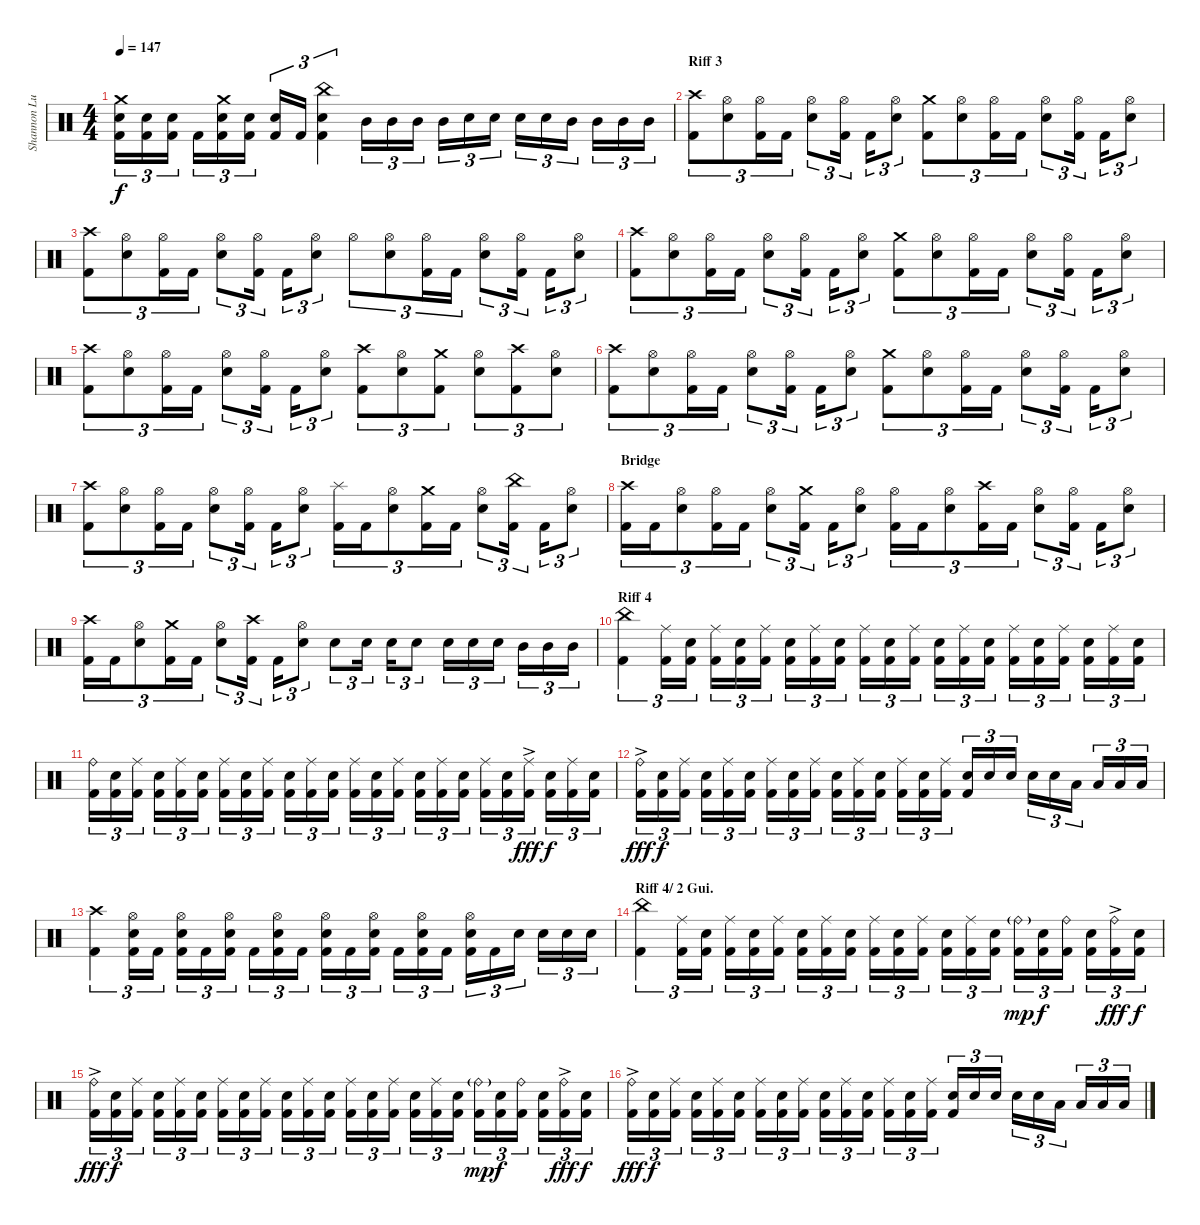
\track ("Shannon Lucas (Drums)" "Shannon Lu") {instrument percussion}
\staff {score}
\articulation defaults
\ts (4 4)
\tempo 147
\clef neutral
\ks c
("Crash medium (hit)" "Snare (hit) 2" "Kick (hit) 2").16{tu (3 2) dy f} ("Snare (hit) 2" "Kick (hit) 2").16{tu (3 2)} ("Snare (hit) 2" "Kick (hit) 2").16{tu (3 2)} "Kick (hit) 2".16{tu (3 2)} ("Crash medium (hit)" "Snare (hit) 2" "Kick (hit) 2").16{tu (3 2)} ("Snare (hit) 2" "Kick (hit) 2").16{tu (3 2)} ("Snare (hit) 2" "Kick (hit) 2").16{tu (3 2)} "Kick (hit) 2".16{tu (3 2)} ("China (hit)" "Snare (hit) 2" "Kick (hit) 2").4{tu (3 2)} "Mid Tom (hit)".16{tu (3 2)} "Mid Tom (hit)".16{tu (3 2)} "Mid Tom (hit)".16{tu (3 2)} "Mid Tom (hit)".16{tu (3 2)} "Snare (hit) 2".16{tu (3 2)} "Snare (hit) 2".16{tu (3 2)} "Snare (hit) 2".16{tu (3 2)} "Snare (hit) 2".16{tu (3 2)} "Mid Tom (hit)".16{tu (3 2)} "Mid Tom (hit)".16{tu (3 2)} "Mid Tom (hit)".16{tu (3 2)} "Mid Tom (hit)".16{tu (3 2)} |
\section ("" "Riff 3")
("Crash high (hit)" "Kick (hit) 2").8{tu (3 2)} ("Hi-Hat (open)" "Snare (hit) 2").8{tu (3 2)} ("Hi-Hat (open)" "Kick (hit) 2").16{tu (3 2)} "Kick (hit) 2".16{tu (3 2)} ("Hi-Hat (open)" "Snare (hit) 2").8{tu (3 2)} ("Hi-Hat (open)" "Kick (hit) 2").16{tu (3 2)} "Kick (hit) 2".16{tu (3 2)} ("Hi-Hat (open)" "Snare (hit) 2").8{tu (3 2)} ("Crash medium (hit)" "Kick (hit) 2").8{tu (3 2)} ("Hi-Hat (open)" "Snare (hit) 2").8{tu (3 2)} ("Hi-Hat (open)" "Kick (hit) 2").16{tu (3 2)} "Kick (hit) 2".16{tu (3 2)} ("Hi-Hat (open)" "Snare (hit) 2").8{tu (3 2)} ("Hi-Hat (open)" "Kick (hit) 2").16{tu (3 2)} "Kick (hit) 2".16{tu (3 2)} ("Hi-Hat (open)" "Snare (hit) 2").8{tu (3 2)} |
("Crash high (hit)" "Kick (hit) 2").8{tu (3 2)} ("Hi-Hat (open)" "Snare (hit) 2").8{tu (3 2)} ("Hi-Hat (open)" "Kick (hit) 2").16{tu (3 2)} "Kick (hit) 2".16{tu (3 2)} ("Hi-Hat (open)" "Snare (hit) 2").8{tu (3 2)} ("Hi-Hat (open)" "Kick (hit) 2").16{tu (3 2)} "Kick (hit) 2".16{tu (3 2)} ("Hi-Hat (open)" "Snare (hit) 2").8{tu (3 2)} "Hi-Hat (open)".8{tu (3 2)} ("Hi-Hat (open)" "Snare (hit) 2").8{tu (3 2)} ("Hi-Hat (open)" "Kick (hit) 2").16{tu (3 2)} "Kick (hit) 2".16{tu (3 2)} ("Hi-Hat (open)" "Snare (hit) 2").8{tu (3 2)} ("Hi-Hat (open)" "Kick (hit) 2").16{tu (3 2)} "Kick (hit) 2".16{tu (3 2)} ("Hi-Hat (open)" "Snare (hit) 2").8{tu (3 2)} |
("Crash high (hit)" "Kick (hit) 2").8{tu (3 2)} ("Hi-Hat (open)" "Snare (hit) 2").8{tu (3 2)} ("Hi-Hat (open)" "Kick (hit) 2").16{tu (3 2)} "Kick (hit) 2".16{tu (3 2)} ("Hi-Hat (open)" "Snare (hit) 2").8{tu (3 2)} ("Hi-Hat (open)" "Kick (hit) 2").16{tu (3 2)} "Kick (hit) 2".16{tu (3 2)} ("Hi-Hat (open)" "Snare (hit) 2").8{tu (3 2)} ("Crash medium (hit)" "Kick (hit) 2").8{tu (3 2)} ("Hi-Hat (open)" "Snare (hit) 2").8{tu (3 2)} ("Hi-Hat (open)" "Kick (hit) 2").16{tu (3 2)} "Kick (hit) 2".16{tu (3 2)} ("Hi-Hat (open)" "Snare (hit) 2").8{tu (3 2)} ("Hi-Hat (open)" "Kick (hit) 2").16{tu (3 2)} "Kick (hit) 2".16{tu (3 2)} ("Hi-Hat (open)" "Snare (hit) 2").8{tu (3 2)} |
("Crash high (hit)" "Kick (hit) 2").8{tu (3 2)} ("Hi-Hat (open)" "Snare (hit) 2").8{tu (3 2)} ("Hi-Hat (open)" "Kick (hit) 2").16{tu (3 2)} "Kick (hit) 2".16{tu (3 2)} ("Hi-Hat (open)" "Snare (hit) 2").8{tu (3 2)} ("Hi-Hat (open)" "Kick (hit) 2").16{tu (3 2)} "Kick (hit) 2".16{tu (3 2)} ("Hi-Hat (open)" "Snare (hit) 2").8{tu (3 2)} ("Crash high (hit)" "Kick (hit) 2").8{tu (3 2)} ("Hi-Hat (open)" "Snare (hit) 2").8{tu (3 2)} ("Crash medium (hit)" "Kick (hit) 2").8{tu (3 2)} ("Hi-Hat (open)" "Snare (hit) 2").8{tu (3 2)} ("Crash high (hit)" "Kick (hit) 2").8{tu (3 2)} ("Hi-Hat (open)" "Snare (hit) 2").8{tu (3 2)} |
("Crash high (hit)" "Kick (hit) 2").8{tu (3 2)} ("Hi-Hat (open)" "Snare (hit) 2").8{tu (3 2)} ("Hi-Hat (open)" "Kick (hit) 2").16{tu (3 2)} "Kick (hit) 2".16{tu (3 2)} ("Hi-Hat (open)" "Snare (hit) 2").8{tu (3 2)} ("Hi-Hat (open)" "Kick (hit) 2").16{tu (3 2)} "Kick (hit) 2".16{tu (3 2)} ("Hi-Hat (open)" "Snare (hit) 2").8{tu (3 2)} ("Crash medium (hit)" "Kick (hit) 2").8{tu (3 2)} ("Hi-Hat (open)" "Snare (hit) 2").8{tu (3 2)} ("Hi-Hat (open)" "Kick (hit) 2").16{tu (3 2)} "Kick (hit) 2".16{tu (3 2)} ("Hi-Hat (open)" "Snare (hit) 2").8{tu (3 2)} ("Hi-Hat (open)" "Kick (hit) 2").16{tu (3 2)} "Kick (hit) 2".16{tu (3 2)} ("Hi-Hat (open)" "Snare (hit) 2").8{tu (3 2)} |
("Crash high (hit)" "Kick (hit) 2").8{tu (3 2)} ("Hi-Hat (open)" "Snare (hit) 2").8{tu (3 2)} ("Hi-Hat (open)" "Kick (hit) 2").16{tu (3 2)} "Kick (hit) 2".16{tu (3 2)} ("Hi-Hat (open)" "Snare (hit) 2").8{tu (3 2)} ("Hi-Hat (open)" "Kick (hit) 2").16{tu (3 2)} "Kick (hit) 2".16{tu (3 2)} ("Hi-Hat (open)" "Snare (hit) 2").8{tu (3 2)} ("Splash (hit)" "Kick (hit) 2").16{tu (3 2)} "Kick (hit) 2".16{tu (3 2)} ("Hi-Hat (open)" "Snare (hit) 2").8{tu (3 2)} ("Crash medium (hit)" "Kick (hit) 2").16{tu (3 2)} "Kick (hit) 2".16{tu (3 2)} ("Hi-Hat (open)" "Snare (hit) 2").8{tu (3 2)} ("China (hit)" "Kick (hit) 2").16{tu (3 2)} "Kick (hit) 2".16{tu (3 2)} ("Hi-Hat (open)" "Snare (hit) 2").8{tu (3 2)} |
\section ("" "Bridge")
("Crash high (hit)" "Kick (hit) 2").16{tu (3 2)} "Kick (hit) 2".16{tu (3 2)} ("Hi-Hat (open)" "Snare (hit) 2").8{tu (3 2)} ("Hi-Hat (open)" "Kick (hit) 2").16{tu (3 2)} "Kick (hit) 2".16{tu (3 2)} ("Hi-Hat (open)" "Snare (hit) 2").8{tu (3 2)} ("Crash medium (hit)" "Kick (hit) 2").16{tu (3 2)} "Kick (hit) 2".16{tu (3 2)} ("Hi-Hat (open)" "Snare (hit) 2").8{tu (3 2)} ("Hi-Hat (open)" "Kick (hit) 2").16{tu (3 2)} "Kick (hit) 2".16{tu (3 2)} ("Hi-Hat (open)" "Snare (hit) 2").8{tu (3 2)} ("Crash high (hit)" "Kick (hit) 2").16{tu (3 2)} "Kick (hit) 2".16{tu (3 2)} ("Hi-Hat (open)" "Snare (hit) 2").8{tu (3 2)} ("Hi-Hat (open)" "Kick (hit) 2").16{tu (3 2)} "Kick (hit) 2".16{tu (3 2)} ("Hi-Hat (open)" "Snare (hit) 2").8{tu (3 2)} |
("Crash high (hit)" "Kick (hit) 2").16{tu (3 2)} "Kick (hit) 2".16{tu (3 2)} ("Hi-Hat (open)" "Snare (hit) 2").8{tu (3 2)} ("Crash medium (hit)" "Kick (hit) 2").16{tu (3 2)} "Kick (hit) 2".16{tu (3 2)} ("Hi-Hat (open)" "Snare (hit) 2").8{tu (3 2)} ("Crash high (hit)" "Kick (hit) 2").16{tu (3 2)} "Kick (hit) 2".16{tu (3 2)} ("Hi-Hat (open)" "Snare (hit) 2").8{tu (3 2)} "Snare (hit) 2".8{tu (3 2)} "Snare (hit) 2".16{tu (3 2)} "Snare (hit) 2".16{tu (3 2)} "Snare (hit) 2".8{tu (3 2)} "Snare (hit) 2".16{tu (3 2)} "Snare (hit) 2".16{tu (3 2)} "Snare (hit) 2".16{tu (3 2)} "Mid Tom (hit)".16{tu (3 2)} "Mid Tom (hit)".16{tu (3 2)} "Mid Tom (hit)".16{tu (3 2)} |
\section ("" "Riff 4")
("China (hit)" "Kick (hit) 2").4{tu (3 2)} ("Ride (middle)" "Kick (hit) 2").16{tu (3 2)} ("Snare (hit) 2" "Kick (hit) 2").16{tu (3 2)} ("Ride (middle)" "Kick (hit) 2").16{tu (3 2)} ("Snare (hit) 2" "Kick (hit) 2").16{tu (3 2)} ("Ride (middle)" "Kick (hit) 2").16{tu (3 2)} ("Snare (hit) 2" "Kick (hit) 2").16{tu (3 2)} ("Ride (middle)" "Kick (hit) 2").16{tu (3 2)} ("Snare (hit) 2" "Kick (hit) 2").16{tu (3 2)} ("Ride (middle)" "Kick (hit) 2").16{tu (3 2)} ("Snare (hit) 2" "Kick (hit) 2").16{tu (3 2)} ("Ride (middle)" "Kick (hit) 2").16{tu (3 2)} ("Snare (hit) 2" "Kick (hit) 2").16{tu (3 2)} ("Ride (middle)" "Kick (hit) 2").16{tu (3 2)} ("Snare (hit) 2" "Kick (hit) 2").16{tu (3 2)} ("Ride (middle)" "Kick (hit) 2").16{tu (3 2)} ("Snare (hit) 2" "Kick (hit) 2").16{tu (3 2)} ("Ride (middle)" "Kick (hit) 2").16{tu (3 2)} ("Snare (hit) 2" "Kick (hit) 2").16{tu (3 2)} ("Ride (middle)" "Kick (hit) 2").16{tu (3 2)} ("Snare (hit) 2" "Kick (hit) 2").16{tu (3 2)} |
("Ride (bell)" "Kick (hit) 2").16{tu (3 2)} ("Snare (hit) 2" "Kick (hit) 2").16{tu (3 2)} ("Ride (middle)" "Kick (hit) 2").16{tu (3 2)} ("Snare (hit) 2" "Kick (hit) 2").16{tu (3 2)} ("Ride (middle)" "Kick (hit) 2").16{tu (3 2)} ("Snare (hit) 2" "Kick (hit) 2").16{tu (3 2)} ("Ride (middle)" "Kick (hit) 2").16{tu (3 2)} ("Snare (hit) 2" "Kick (hit) 2").16{tu (3 2)} ("Ride (middle)" "Kick (hit) 2").16{tu (3 2)} ("Snare (hit) 2" "Kick (hit) 2").16{tu (3 2)} ("Ride (middle)" "Kick (hit) 2").16{tu (3 2)} ("Snare (hit) 2" "Kick (hit) 2").16{tu (3 2)} ("Ride (middle)" "Kick (hit) 2").16{tu (3 2)} ("Snare (hit) 2" "Kick (hit) 2").16{tu (3 2)} ("Ride (middle)" "Kick (hit) 2").16{tu (3 2)} ("Snare (hit) 2" "Kick (hit) 2").16{tu (3 2)} ("Ride (middle)" "Kick (hit) 2").16{tu (3 2)} ("Snare (hit) 2" "Kick (hit) 2").16{tu (3 2)} ("Ride (middle)" "Kick (hit) 2").16{tu (3 2)} ("Snare (hit) 2" "Kick (hit) 2").16{tu (3 2)} ("Ride (middle)"{ac} "Kick (hit) 2").16{tu (3 2) dy fff} ("Snare (hit) 2" "Kick (hit) 2").16{tu (3 2) dy f} ("Ride (middle)" "Kick (hit) 2").16{tu (3 2)} ("Snare (hit) 2" "Kick (hit) 2").16{tu (3 2)} |
("Ride (bell)"{ac} "Kick (hit) 2").16{tu (3 2) dy fff} ("Snare (hit) 2" "Kick (hit) 2").16{tu (3 2) dy f} ("Ride (middle)" "Kick (hit) 2").16{tu (3 2)} ("Snare (hit) 2" "Kick (hit) 2").16{tu (3 2)} ("Ride (middle)" "Kick (hit) 2").16{tu (3 2)} ("Snare (hit) 2" "Kick (hit) 2").16{tu (3 2)} ("Ride (middle)" "Kick (hit) 2").16{tu (3 2)} ("Snare (hit) 2" "Kick (hit) 2").16{tu (3 2)} ("Ride (middle)" "Kick (hit) 2").16{tu (3 2)} ("Snare (hit) 2" "Kick (hit) 2").16{tu (3 2)} ("Ride (middle)" "Kick (hit) 2").16{tu (3 2)} ("Snare (hit) 2" "Kick (hit) 2").16{tu (3 2)} ("Ride (middle)" "Kick (hit) 2").16{tu (3 2)} ("Snare (hit) 2" "Kick (hit) 2").16{tu (3 2)} ("Ride (middle)" "Kick (hit) 2").16{tu (3 2)} ("Snare (hit) 2" "Kick (hit) 2").16{tu (3 2)} "Snare (hit) 2".16{tu (3 2)} "Snare (hit) 2".16{tu (3 2)} "Snare (hit) 2".16{tu (3 2)} "Snare (hit) 2".16{tu (3 2)} "Low Tom (hit)".16{tu (3 2)} "Low Tom (hit)".16{tu (3 2)} "Low Tom (hit)".16{tu (3 2)} "Low Tom (hit)".16{tu (3 2)} |
("Crash high (hit)" "Kick (hit) 2").4{tu (3 2)} ("Hi-Hat (open)" "Snare (hit) 2" "Kick (hit) 2").16{tu (3 2)} "Kick (hit) 2".16{tu (3 2)} ("Hi-Hat (open)" "Snare (hit) 2" "Kick (hit) 2").16{tu (3 2)} "Kick (hit) 2".16{tu (3 2)} ("Hi-Hat (open)" "Snare (hit) 2" "Kick (hit) 2").16{tu (3 2)} "Kick (hit) 2".16{tu (3 2)} ("Hi-Hat (open)" "Snare (hit) 2" "Kick (hit) 2").16{tu (3 2)} "Kick (hit) 2".16{tu (3 2)} ("Hi-Hat (open)" "Snare (hit) 2" "Kick (hit) 2").16{tu (3 2)} "Kick (hit) 2".16{tu (3 2)} ("Hi-Hat (open)" "Snare (hit) 2" "Kick (hit) 2").16{tu (3 2)} "Kick (hit) 2".16{tu (3 2)} ("Hi-Hat (open)" "Snare (hit) 2" "Kick (hit) 2").16{tu (3 2)} "Kick (hit) 2".16{tu (3 2)} ("Hi-Hat (open)" "Snare (hit) 2" "Kick (hit) 2").16{tu (3 2)} "Kick (hit) 2".16{tu (3 2)} "Snare (hit) 2".16{tu (3 2)} "Snare (hit) 2".16{tu (3 2)} "Snare (hit) 2".16{tu (3 2)} "Snare (hit) 2".16{tu (3 2)} |
\section ("" "Riff 4/ 2 Gui.")
("China (hit)" "Kick (hit) 2").4{tu (3 2)} ("Ride (middle)" "Kick (hit) 2").16{tu (3 2)} ("Snare (hit) 2" "Kick (hit) 2").16{tu (3 2)} ("Ride (middle)" "Kick (hit) 2").16{tu (3 2)} ("Snare (hit) 2" "Kick (hit) 2").16{tu (3 2)} ("Ride (middle)" "Kick (hit) 2").16{tu (3 2)} ("Snare (hit) 2" "Kick (hit) 2").16{tu (3 2)} ("Ride (middle)" "Kick (hit) 2").16{tu (3 2)} ("Snare (hit) 2" "Kick (hit) 2").16{tu (3 2)} ("Ride (middle)" "Kick (hit) 2").16{tu (3 2)} ("Snare (hit) 2" "Kick (hit) 2").16{tu (3 2)} ("Ride (middle)" "Kick (hit) 2").16{tu (3 2)} ("Snare (hit) 2" "Kick (hit) 2").16{tu (3 2)} ("Ride (middle)" "Kick (hit) 2").16{tu (3 2)} ("Snare (hit) 2" "Kick (hit) 2").16{tu (3 2)} ("Ride (bell)"{g} "Kick (hit) 2").16{tu (3 2) dy mp} ("Snare (hit) 2" "Kick (hit) 2").16{tu (3 2) dy f} ("Ride (bell)" "Kick (hit) 2").16{tu (3 2)} ("Snare (hit) 2" "Kick (hit) 2").16{tu (3 2)} ("Ride (bell)"{ac} "Kick (hit) 2").16{tu (3 2) dy fff} ("Snare (hit) 2" "Kick (hit) 2").16{tu (3 2) dy f} |
("Ride (bell)"{ac} "Kick (hit) 2").16{tu (3 2) dy fff} ("Snare (hit) 2" "Kick (hit) 2").16{tu (3 2) dy f} ("Ride (middle)" "Kick (hit) 2").16{tu (3 2)} ("Snare (hit) 2" "Kick (hit) 2").16{tu (3 2)} ("Ride (middle)" "Kick (hit) 2").16{tu (3 2)} ("Snare (hit) 2" "Kick (hit) 2").16{tu (3 2)} ("Ride (middle)" "Kick (hit) 2").16{tu (3 2)} ("Snare (hit) 2" "Kick (hit) 2").16{tu (3 2)} ("Ride (middle)" "Kick (hit) 2").16{tu (3 2)} ("Snare (hit) 2" "Kick (hit) 2").16{tu (3 2)} ("Ride (middle)" "Kick (hit) 2").16{tu (3 2)} ("Snare (hit) 2" "Kick (hit) 2").16{tu (3 2)} ("Ride (middle)" "Kick (hit) 2").16{tu (3 2)} ("Snare (hit) 2" "Kick (hit) 2").16{tu (3 2)} ("Ride (middle)" "Kick (hit) 2").16{tu (3 2)} ("Snare (hit) 2" "Kick (hit) 2").16{tu (3 2)} ("Ride (middle)" "Kick (hit) 2").16{tu (3 2)} ("Snare (hit) 2" "Kick (hit) 2").16{tu (3 2)} ("Ride (bell)"{g} "Kick (hit) 2").16{tu (3 2) dy mp} ("Snare (hit) 2" "Kick (hit) 2").16{tu (3 2) dy f} ("Ride (bell)" "Kick (hit) 2").16{tu (3 2)} ("Snare (hit) 2" "Kick (hit) 2").16{tu (3 2)} ("Ride (bell)"{ac} "Kick (hit) 2").16{tu (3 2) dy fff} ("Snare (hit) 2" "Kick (hit) 2").16{tu (3 2) dy f} |
("Ride (bell)"{ac} "Kick (hit) 2").16{tu (3 2) dy fff} ("Snare (hit) 2" "Kick (hit) 2").16{tu (3 2) dy f} ("Ride (middle)" "Kick (hit) 2").16{tu (3 2)} ("Snare (hit) 2" "Kick (hit) 2").16{tu (3 2)} ("Ride (middle)" "Kick (hit) 2").16{tu (3 2)} ("Snare (hit) 2" "Kick (hit) 2").16{tu (3 2)} ("Ride (middle)" "Kick (hit) 2").16{tu (3 2)} ("Snare (hit) 2" "Kick (hit) 2").16{tu (3 2)} ("Ride (middle)" "Kick (hit) 2").16{tu (3 2)} ("Snare (hit) 2" "Kick (hit) 2").16{tu (3 2)} ("Ride (middle)" "Kick (hit) 2").16{tu (3 2)} ("Snare (hit) 2" "Kick (hit) 2").16{tu (3 2)} ("Ride (middle)" "Kick (hit) 2").16{tu (3 2)} ("Snare (hit) 2" "Kick (hit) 2").16{tu (3 2)} ("Ride (middle)" "Kick (hit) 2").16{tu (3 2)} ("Snare (hit) 2" "Kick (hit) 2").16{tu (3 2)} "Snare (hit) 2".16{tu (3 2)} "Snare (hit) 2".16{tu (3 2)} "Snare (hit) 2".16{tu (3 2)} "Snare (hit) 2".16{tu (3 2)} "Low Tom (hit)".16{tu (3 2)} "Low Tom (hit)".16{tu (3 2)} "Low Tom (hit)".16{tu (3 2)} "Low Tom (hit)".16{tu (3 2)}
